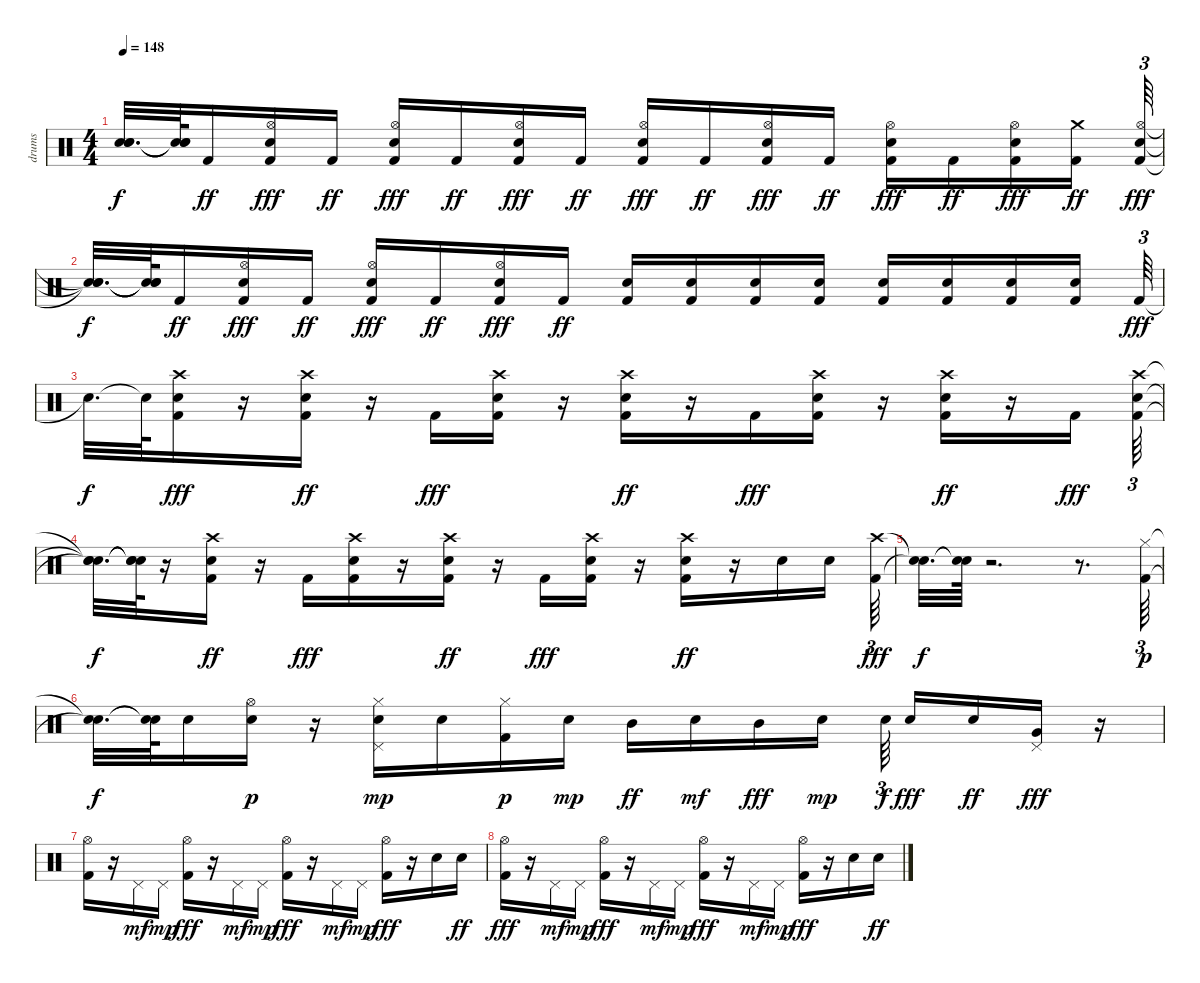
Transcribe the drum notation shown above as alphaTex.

\track ("drums" "drums") {instrument percussion}
\staff {score}
\articulation defaults
\ts (4 4)
\tempo 148
\clef neutral
\ks c
("Snare (hit)"{t} "Snare (hit)"{t} "Snare (hit)"{t}).32{d dy f} ("Snare (hit)"{t} "Snare (hit)"{t} "Snare (hit)"{t}).64 "Kick (hit) 2".16{dy ff} ("Hi-Hat (open)" "Kick (hit) 2" "Electric Snare (hit)").16{dy fff} "Kick (hit) 2".16{dy ff} ("Hi-Hat (open)" "Electric Snare (hit)" "Kick (hit) 2").16{dy fff} "Kick (hit) 2".16{dy ff} ("Hi-Hat (open)" "Electric Snare (hit)" "Kick (hit) 2").16{dy fff} "Kick (hit) 2".16{dy ff} ("Hi-Hat (open)" "Electric Snare (hit)" "Kick (hit) 2").16{dy fff} "Kick (hit) 2".16{dy ff} ("Hi-Hat (open)" "Electric Snare (hit)" "Kick (hit) 2").16{dy fff} "Kick (hit) 2".16{dy ff} ("Electric Snare (hit)" "Hi-Hat (open)" "Kick (hit) 2").16{dy fff} "Kick (hit) 2".16{dy ff} ("Hi-Hat (open)" "Electric Snare (hit)" "Kick (hit) 2").16{dy fff} ("Kick (hit) 2" "Crash medium (hit)").16{dy ff} ("Electric Snare (hit)" "Hi-Hat (open)" "Kick (hit) 2").64{tu (3 2) dy fff} |
("Snare (hit)"{t} "Snare (hit)"{t} "Snare (hit)"{t}).32{d dy f} ("Snare (hit)"{t} "Snare (hit)"{t} "Snare (hit)"{t}).64 "Kick (hit) 2".16{dy ff} ("Hi-Hat (open)" "Electric Snare (hit)" "Kick (hit) 2").16{dy fff} "Kick (hit) 2".16{dy ff} ("Hi-Hat (open)" "Electric Snare (hit)" "Kick (hit) 2").16{dy fff} "Kick (hit) 2".16{dy ff} ("Hi-Hat (open)" "Electric Snare (hit)" "Kick (hit) 2").16{dy fff} "Kick (hit) 2".16{dy ff} ("Kick (hit) 2" "Electric Snare (hit)").16 ("Kick (hit) 2" "Electric Snare (hit)").16 ("Kick (hit) 2" "Electric Snare (hit)").16 ("Kick (hit) 2" "Electric Snare (hit)").16 ("Kick (hit) 2" "Electric Snare (hit)").16 ("Kick (hit) 2" "Electric Snare (hit)").16 ("Kick (hit) 2" "Electric Snare (hit)").16 ("Kick (hit) 2" "Electric Snare (hit)").16 "Kick (hit) 2".64{tu (3 2) dy fff} |
"Snare (hit)"{t}.32{d dy f} "Snare (hit)"{t}.64 ("Electric Snare (hit)" "Crash high (hit)" "Kick (hit) 2").16{dy fff} r.16 ("Kick (hit) 2" "Crash high (hit)" "Electric Snare (hit)").16{dy ff} r.16 "Kick (hit) 2".16{dy fff} ("Electric Snare (hit)" "Crash high (hit)" "Kick (hit) 2").16 r.16 ("Kick (hit) 2" "Crash high (hit)" "Electric Snare (hit)").16{dy ff} r.16 "Kick (hit) 2".16{dy fff} ("Electric Snare (hit)" "Crash high (hit)" "Kick (hit) 2").16 r.16 ("Kick (hit) 2" "Crash high (hit)" "Electric Snare (hit)").16{dy ff} r.16 "Kick (hit) 2".16{dy fff} ("Electric Snare (hit)" "Crash high (hit)" "Kick (hit) 2").64{tu (3 2)} |
("Snare (hit)"{t} "Snare (hit)"{t} "Snare (hit)"{t}).32{d dy f} ("Snare (hit)"{t} "Snare (hit)"{t} "Snare (hit)"{t}).64 r.16 ("Kick (hit) 2" "Crash high (hit)" "Electric Snare (hit)").16{dy ff} r.16 "Kick (hit) 2".16{dy fff} ("Electric Snare (hit)" "Crash high (hit)" "Kick (hit) 2").16 r.16 ("Kick (hit) 2" "Crash high (hit)" "Electric Snare (hit)").16{dy ff} r.16 "Kick (hit) 2".16{dy fff} ("Electric Snare (hit)" "Crash high (hit)" "Kick (hit) 2").16 r.16 ("Kick (hit) 2" "Crash high (hit)" "Electric Snare (hit)").16{dy ff} r.16 "Electric Snare (hit)".16 "Electric Snare (hit)".16 ("Crash high (hit)" "Kick (hit) 2").64{tu (3 2) dy fff} |
("Snare (hit)"{t} "Snare (hit)"{t}).32{d dy f} ("Snare (hit)"{t} "Snare (hit)"{t}).64 r.2{d} r.8{d} ("Kick (hit) 2" "Hi-Hat (closed)").64{tu (3 2) dy p} |
("Snare (hit)"{t} "Snare (hit)"{t}).32{d dy f} ("Snare (hit)"{t} "Snare (hit)"{t}).64 "Snare (hit) 2".16 ("Snare (hit) 2" "Hi-Hat (open)").16{dy p} r.16 ("Pedal Hi-Hat (hit)" "Electric Snare (hit)" "Hi-Hat (closed)").16{dy mp} "Snare (hit) 2".16 ("Kick (hit) 2" "Hi-Hat (closed)").16{dy p} "Snare (hit) 2".16{dy mp} "Mid Tom (hit)".16{dy ff} "Snare (hit) 2".16{dy mf} "Mid Tom (hit)".16{dy fff} "Snare (hit) 2".16{dy mp} "Snare (hit) 2".64{tu (3 2) dy f beam splitsecondary} "Snare (hit) 2".16{dy fff} "Electric Snare (hit)".16{dy ff} ("Very Low Tom (hit)" "Pedal Hi-Hat (hit)").16{dy fff} r.16 |
("Hi-Hat (open)" "Kick (hit) 2").16 r.16 "Pedal Hi-Hat (hit)".16{dy mf} "Pedal Hi-Hat (hit)".16{dy mp} ("Hi-Hat (open)" "Kick (hit) 2").16{dy fff} r.16 "Pedal Hi-Hat (hit)".16{dy mf} "Pedal Hi-Hat (hit)".16{dy mp} ("Hi-Hat (open)" "Kick (hit) 2").16{dy fff} r.16 "Pedal Hi-Hat (hit)".16{dy mf} "Pedal Hi-Hat (hit)".16{dy mp} ("Hi-Hat (open)" "Kick (hit) 2").16{dy fff} r.16 "Electric Snare (hit)".16 "Electric Snare (hit)".16{dy ff} |
("Hi-Hat (open)" "Kick (hit) 2").16{dy fff} r.16 "Pedal Hi-Hat (hit)".16{dy mf} "Pedal Hi-Hat (hit)".16{dy mp} ("Hi-Hat (open)" "Kick (hit) 2").16{dy fff} r.16 "Pedal Hi-Hat (hit)".16{dy mf} "Pedal Hi-Hat (hit)".16{dy mp} ("Hi-Hat (open)" "Kick (hit) 2").16{dy fff} r.16 "Pedal Hi-Hat (hit)".16{dy mf} "Pedal Hi-Hat (hit)".16{dy mp} ("Hi-Hat (open)" "Kick (hit) 2").16{dy fff} r.16 "Electric Snare (hit)".16 "Electric Snare (hit)".16{dy ff}
